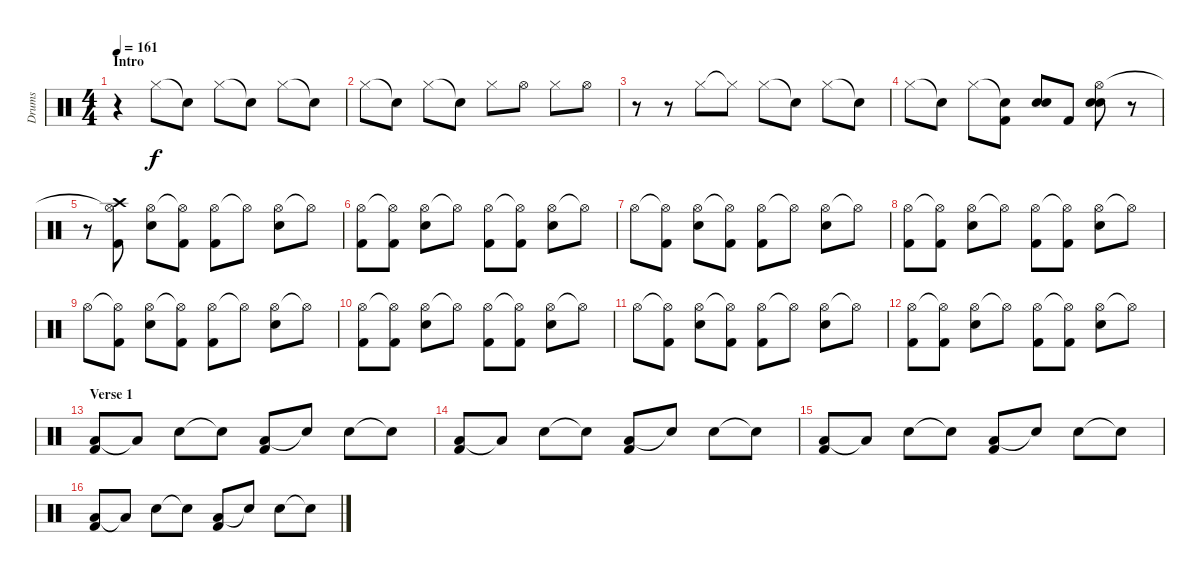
\track ("Drums" "Drums") {instrument percussion}
\staff {score}
\articulation defaults
\ts (4 4)
\section ("" "Intro")
\tempo 161
\clef neutral
\ks c
r.4{dy f} "Hi-Hat (closed)".8 "Snare (hit)"{t}.8 "Hi-Hat (closed)".8 "Snare (hit)"{t}.8 "Hi-Hat (closed)".8 "Snare (hit)"{t}.8 |
"Hi-Hat (closed)".8 "Snare (hit)"{t}.8 "Hi-Hat (closed)".8 "Snare (hit)"{t}.8 "Hi-Hat (closed)".8 "Hi-Hat (open)".8 "Hi-Hat (closed)".8 "Hi-Hat (open)".8 |
r.8 r.8 "Hi-Hat (closed)".8 "Hi-Hat (closed)"{t}.8 "Hi-Hat (closed)".8 "Snare (hit)"{t}.8 "Hi-Hat (closed)".8 "Snare (hit)"{t}.8 |
"Hi-Hat (closed)".8 "Snare (hit)"{t}.8 "Hi-Hat (closed)".8 ("Snare (hit)"{t} "Kick (hit) 2").8 ("Electric Snare (hit)" "Electric Snare (hit)").8 "Kick (hit) 2".8 ("Hi-Hat (open)" "Electric Snare (hit)" "Electric Snare (hit)").8 r.8 |
r.8 ("Hi-Hat (open)"{t} "Kick (hit) 2" "Crash high (hit)").8 ("Hi-Hat (open)" "Electric Snare (hit)").8 ("Hi-Hat (open)"{t} "Kick (hit) 2").8 ("Hi-Hat (open)" "Kick (hit) 2").8 "Hi-Hat (open)"{t}.8 ("Hi-Hat (open)" "Electric Snare (hit)").8 "Hi-Hat (open)"{t}.8 |
("Hi-Hat (open)" "Kick (hit) 2").8 ("Hi-Hat (open)"{t} "Kick (hit) 2").8 ("Hi-Hat (open)" "Electric Snare (hit)").8 "Hi-Hat (open)"{t}.8 ("Hi-Hat (open)" "Kick (hit) 2").8 ("Hi-Hat (open)"{t} "Kick (hit) 2").8 ("Hi-Hat (open)" "Electric Snare (hit)").8 "Hi-Hat (open)"{t}.8 |
"Hi-Hat (open)".8 ("Hi-Hat (open)"{t} "Kick (hit) 2").8 ("Hi-Hat (open)" "Electric Snare (hit)").8 ("Hi-Hat (open)"{t} "Kick (hit) 2").8 ("Hi-Hat (open)" "Kick (hit) 2").8 "Hi-Hat (open)"{t}.8 ("Hi-Hat (open)" "Electric Snare (hit)").8 "Hi-Hat (open)"{t}.8 |
("Hi-Hat (open)" "Kick (hit) 2").8 ("Hi-Hat (open)"{t} "Kick (hit) 2").8 ("Hi-Hat (open)" "Electric Snare (hit)").8 "Hi-Hat (open)"{t}.8 ("Hi-Hat (open)" "Kick (hit) 2").8 ("Hi-Hat (open)"{t} "Kick (hit) 2").8 ("Hi-Hat (open)" "Electric Snare (hit)").8 "Hi-Hat (open)"{t}.8 |
"Hi-Hat (open)".8 ("Hi-Hat (open)"{t} "Kick (hit) 2").8 ("Hi-Hat (open)" "Electric Snare (hit)").8 ("Hi-Hat (open)"{t} "Kick (hit) 2").8 ("Hi-Hat (open)" "Kick (hit) 2").8 "Hi-Hat (open)"{t}.8 ("Hi-Hat (open)" "Electric Snare (hit)").8 "Hi-Hat (open)"{t}.8 |
("Hi-Hat (open)" "Kick (hit) 2").8 ("Hi-Hat (open)"{t} "Kick (hit) 2").8 ("Hi-Hat (open)" "Electric Snare (hit)").8 "Hi-Hat (open)"{t}.8 ("Hi-Hat (open)" "Kick (hit) 2").8 ("Hi-Hat (open)"{t} "Kick (hit) 2").8 ("Hi-Hat (open)" "Electric Snare (hit)").8 "Hi-Hat (open)"{t}.8 |
"Hi-Hat (open)".8 ("Hi-Hat (open)"{t} "Kick (hit) 2").8 ("Hi-Hat (open)" "Electric Snare (hit)").8 ("Hi-Hat (open)"{t} "Kick (hit) 2").8 ("Hi-Hat (open)" "Kick (hit) 2").8 "Hi-Hat (open)"{t}.8 ("Hi-Hat (open)" "Electric Snare (hit)").8 "Hi-Hat (open)"{t}.8 |
("Hi-Hat (open)" "Kick (hit) 2").8 ("Hi-Hat (open)"{t} "Kick (hit) 2").8 ("Hi-Hat (open)" "Electric Snare (hit)").8 "Hi-Hat (open)"{t}.8 ("Hi-Hat (open)" "Kick (hit) 2").8 ("Hi-Hat (open)"{t} "Kick (hit) 2").8 ("Hi-Hat (open)" "Electric Snare (hit)").8 "Hi-Hat (open)"{t}.8 |
\section ("" "Verse 1")
("Low Tom (hit)" "Kick (hit) 2").8{volume 14} "Low Tom (hit)"{t}.8 "Electric Snare (hit)".8 "Snare (hit)"{t}.8 ("Low Tom (hit)" "Kick (hit) 2").8 "Snare (hit)"{t}.8 "Electric Snare (hit)".8 "Snare (hit)"{t}.8 |
("Low Tom (hit)" "Kick (hit) 2").8 "Low Tom (hit)"{t}.8 "Electric Snare (hit)".8 "Snare (hit)"{t}.8 ("Low Tom (hit)" "Kick (hit) 2").8 "Snare (hit)"{t}.8 "Electric Snare (hit)".8 "Snare (hit)"{t}.8 |
("Low Tom (hit)" "Kick (hit) 2").8 "Low Tom (hit)"{t}.8 "Electric Snare (hit)".8 "Snare (hit)"{t}.8 ("Low Tom (hit)" "Kick (hit) 2").8 "Snare (hit)"{t}.8 "Electric Snare (hit)".8 "Snare (hit)"{t}.8 |
("Low Tom (hit)" "Kick (hit) 2").8 "Low Tom (hit)"{t}.8 "Electric Snare (hit)".8 "Snare (hit)"{t}.8 ("Low Tom (hit)" "Kick (hit) 2").8 "Snare (hit)"{t}.8 "Electric Snare (hit)".8 "Snare (hit)"{t}.8
